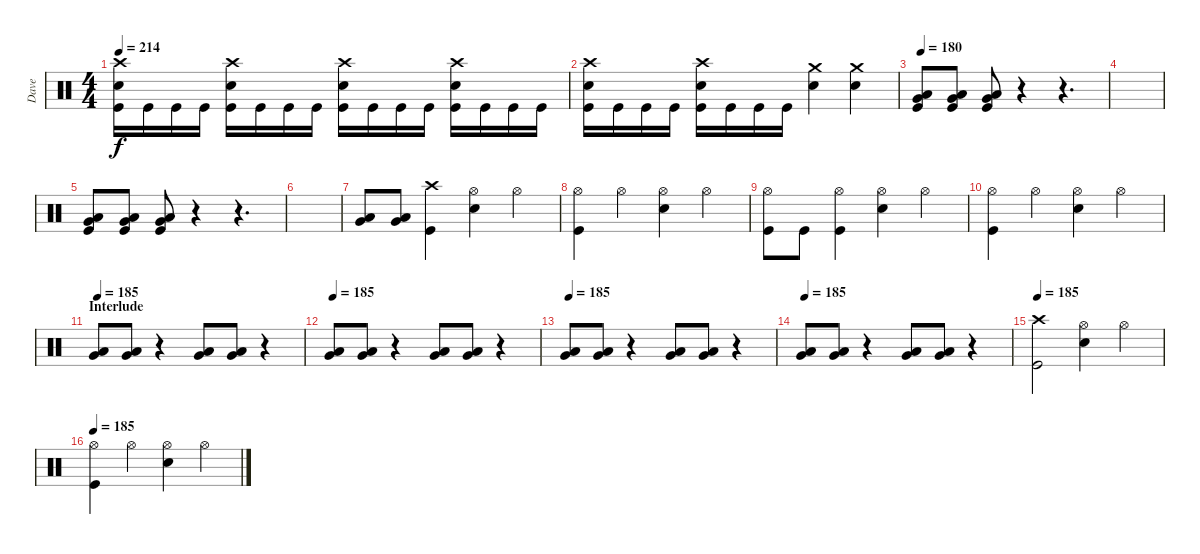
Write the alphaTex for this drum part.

\track ("Dave" "Dave") {instrument percussion}
\staff {score}
\articulation defaults
\ts (4 4)
\tempo 214
\clef neutral
\ks c
("Crash high (hit)" "Snare (hit) 2" "Kick (hit)").16{dy f} "Kick (hit)".16 "Kick (hit)".16 "Kick (hit)".16 ("Crash high (hit)" "Snare (hit) 2" "Kick (hit)").16 "Kick (hit)".16 "Kick (hit)".16 "Kick (hit)".16 ("Crash high (hit)" "Snare (hit) 2" "Kick (hit)").16 "Kick (hit)".16 "Kick (hit)".16 "Kick (hit)".16 ("Crash high (hit)" "Snare (hit) 2" "Kick (hit)").16 "Kick (hit)".16 "Kick (hit)".16 "Kick (hit)".16 |
("Crash high (hit)" "Snare (hit) 2" "Kick (hit)").16 "Kick (hit)".16 "Kick (hit)".16 "Kick (hit)".16 ("Crash high (hit)" "Snare (hit) 2" "Kick (hit)").16 "Kick (hit)".16 "Kick (hit)".16 "Kick (hit)".16 ("Crash medium (hit)" "Snare (hit) 2").4 ("Crash medium (hit)" "Snare (hit) 2").4 |
\tempo 180
("Very Low Tom (hit)" "Low Floor Tom (hit)" "Kick (hit)").8 ("Very Low Tom (hit)" "Low Floor Tom (hit)" "Kick (hit)").8 ("Very Low Tom (hit)" "Low Floor Tom (hit)" "Kick (hit)").8 r.4 r.4{d} |
|
("Very Low Tom (hit)" "Low Floor Tom (hit)" "Kick (hit)").8 ("Very Low Tom (hit)" "Low Floor Tom (hit)" "Kick (hit)").8 ("Very Low Tom (hit)" "Low Floor Tom (hit)" "Kick (hit)").8 r.4 r.4{d} |
|
("Very Low Tom (hit)" "Low Floor Tom (hit)").8 ("Very Low Tom (hit)" "Low Floor Tom (hit)").8 ("Crash high (hit)" "Kick (hit)").4 ("Hi-Hat (open)" "Snare (hit) 2").4 "Hi-Hat (open)".4 |
("Hi-Hat (open)" "Kick (hit)").4 "Hi-Hat (open)".4 ("Hi-Hat (open)" "Snare (hit) 2").4 "Hi-Hat (open)".4 |
("Hi-Hat (open)" "Kick (hit)").8 "Kick (hit)".8 ("Hi-Hat (open)" "Kick (hit)").4 ("Hi-Hat (open)" "Snare (hit) 2").4 "Hi-Hat (open)".4 |
("Hi-Hat (open)" "Kick (hit)").4 "Hi-Hat (open)".4 ("Hi-Hat (open)" "Snare (hit) 2").4 "Hi-Hat (open)".4 |
\section ("" "Interlude")
\tempo 185
("Very Low Tom (hit)" "Low Floor Tom (hit)").8 ("Very Low Tom (hit)" "Low Floor Tom (hit)").8 r.4 ("Low Floor Tom (hit)" "Very Low Tom (hit)").8 ("Low Floor Tom (hit)" "Very Low Tom (hit)").8 r.4 |
\tempo 185
("Very Low Tom (hit)" "Low Floor Tom (hit)").8 ("Very Low Tom (hit)" "Low Floor Tom (hit)").8 r.4 ("Low Floor Tom (hit)" "Very Low Tom (hit)").8 ("Low Floor Tom (hit)" "Very Low Tom (hit)").8 r.4 |
\tempo 185
("Very Low Tom (hit)" "Low Floor Tom (hit)").8 ("Very Low Tom (hit)" "Low Floor Tom (hit)").8 r.4 ("Low Floor Tom (hit)" "Very Low Tom (hit)").8 ("Low Floor Tom (hit)" "Very Low Tom (hit)").8 r.4 |
\tempo 185
("Very Low Tom (hit)" "Low Floor Tom (hit)").8 ("Very Low Tom (hit)" "Low Floor Tom (hit)").8 r.4 ("Low Floor Tom (hit)" "Very Low Tom (hit)").8 ("Low Floor Tom (hit)" "Very Low Tom (hit)").8 r.4 |
\tempo 185
("Crash high (hit)" "Kick (hit)").2 ("Hi-Hat (open)" "Snare (hit) 2").4 "Hi-Hat (open)".4 |
\tempo 185
("Hi-Hat (open)" "Kick (hit)").4 "Hi-Hat (open)".4 ("Hi-Hat (open)" "Snare (hit) 2").4 "Hi-Hat (open)".4
